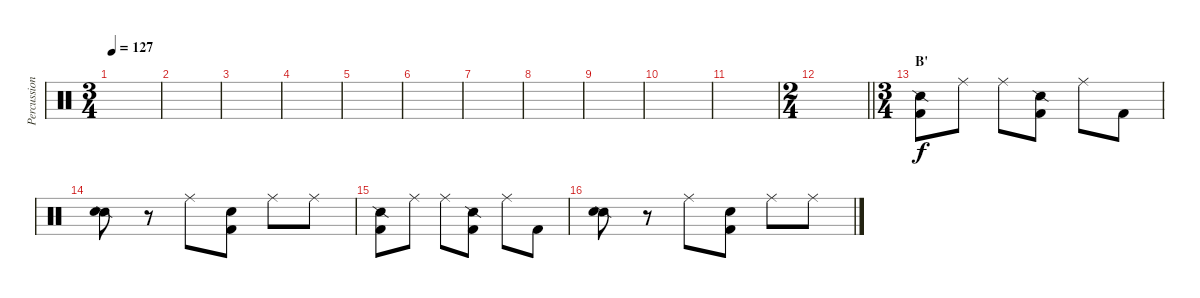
\track ("Percussion" "Percussion") {instrument percussion}
\staff {score}
\articulation defaults
\ts (3 4)
\tempo 127
\clef neutral
\ks c
|
|
|
|
|
|
|
|
|
|
|
\ts (2 4)
\barLineRight lightlight
|
\ts (3 4)
\section ("" "B'")
("Snare (side stick) 2" "Kick (hit) 2").8 "Ride (middle)".8 "Ride (middle)".8 ("Snare (side stick) 2" "Kick (hit) 2").8 "Ride (middle)".8 "Kick (hit) 2".8 |
("Snare (side stick) 2" "Snare (hit) 2").8 r.8 "Ride (middle)".8 ("Snare (hit)" "Kick (hit) 2").8 "Ride (middle)".8 "Ride (middle)".8 |
("Snare (side stick) 2" "Kick (hit) 2").8 "Ride (middle)".8 "Ride (middle)".8 ("Snare (side stick) 2" "Kick (hit) 2").8 "Ride (middle)".8 "Kick (hit) 2".8 |
("Snare (side stick) 2" "Snare (hit) 2").8 r.8 "Ride (middle)".8 ("Snare (hit)" "Kick (hit) 2").8 "Ride (middle)".8 "Ride (middle)".8
